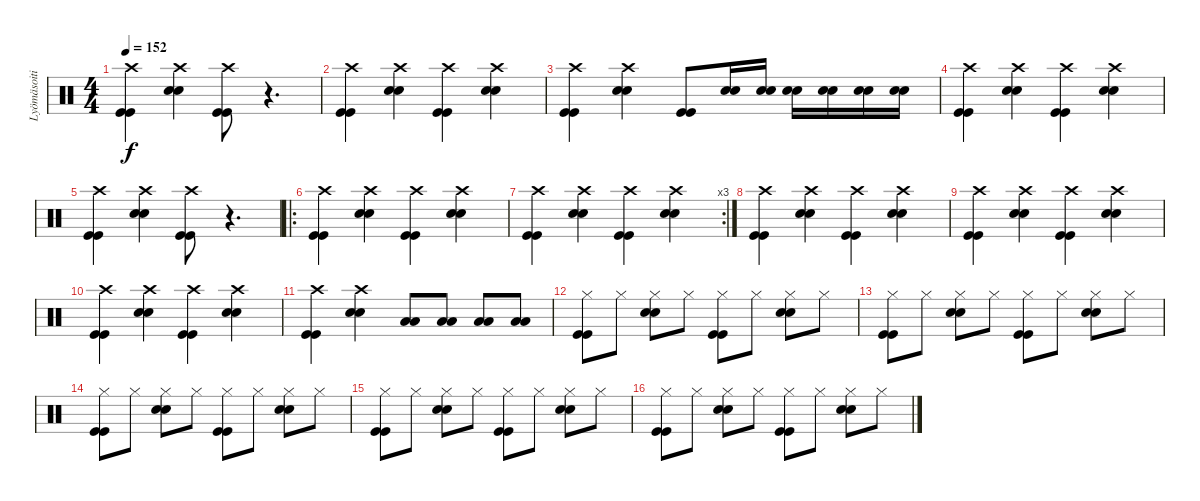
\track ("Lyömäsoitin" "Lyömäsoiti") {instrument percussion}
\staff {score}
\articulation defaults
\ts (4 4)
\tempo 152
\clef neutral
\ks c
("Crash high (hit)" "Kick (hit)" "Kick (hit)").4{dy f} ("Crash high (hit)" "Snare (hit) 2" "Snare (hit) 2").4 ("Crash high (hit)" "Kick (hit)" "Kick (hit)").8 r.4{d} |
("Crash high (hit)" "Kick (hit)" "Kick (hit)").4 ("Crash high (hit)" "Snare (hit) 2" "Snare (hit) 2").4 ("Crash high (hit)" "Kick (hit)" "Kick (hit)").4 ("Crash high (hit)" "Snare (hit) 2" "Snare (hit) 2").4 |
("Crash high (hit)" "Kick (hit)" "Kick (hit)").4 ("Crash high (hit)" "Snare (hit) 2" "Snare (hit) 2").4 ("Kick (hit)" "Kick (hit)").8 ("Snare (hit) 2" "Snare (hit) 2").16 ("Snare (hit) 2" "Snare (hit) 2").16 ("Snare (hit) 2" "Snare (hit) 2").16 ("Snare (hit) 2" "Snare (hit) 2").16 ("Snare (hit) 2" "Snare (hit) 2").16 ("Snare (hit) 2" "Snare (hit) 2").16 |
("Crash high (hit)" "Kick (hit)" "Kick (hit)").4 ("Crash high (hit)" "Snare (hit) 2" "Snare (hit) 2").4 ("Crash high (hit)" "Kick (hit)" "Kick (hit)").4 ("Crash high (hit)" "Snare (hit) 2" "Snare (hit) 2").4 |
("Crash high (hit)" "Kick (hit)" "Kick (hit)").4 ("Crash high (hit)" "Snare (hit) 2" "Snare (hit) 2").4 ("Crash high (hit)" "Kick (hit)" "Kick (hit)").8 r.4{d} |
\ro
("Crash high (hit)" "Kick (hit)" "Kick (hit)").4 ("Crash high (hit)" "Snare (hit) 2" "Snare (hit) 2").4 ("Crash high (hit)" "Kick (hit)" "Kick (hit)").4 ("Crash high (hit)" "Snare (hit) 2" "Snare (hit) 2").4 |
\rc 3
("Crash high (hit)" "Kick (hit)" "Kick (hit)").4 ("Crash high (hit)" "Snare (hit) 2" "Snare (hit) 2").4 ("Crash high (hit)" "Kick (hit)" "Kick (hit)").4 ("Crash high (hit)" "Snare (hit) 2" "Snare (hit) 2").4 |
("Crash high (hit)" "Kick (hit)" "Kick (hit)").4 ("Crash high (hit)" "Snare (hit) 2" "Snare (hit) 2").4 ("Crash high (hit)" "Kick (hit)" "Kick (hit)").4 ("Crash high (hit)" "Snare (hit) 2" "Snare (hit) 2").4 |
("Crash high (hit)" "Kick (hit)" "Kick (hit)").4 ("Crash high (hit)" "Snare (hit) 2" "Snare (hit) 2").4 ("Crash high (hit)" "Kick (hit)" "Kick (hit)").4 ("Crash high (hit)" "Snare (hit) 2" "Snare (hit) 2").4 |
("Crash high (hit)" "Kick (hit)" "Kick (hit)").4 ("Crash high (hit)" "Snare (hit) 2" "Snare (hit) 2").4 ("Crash high (hit)" "Kick (hit)" "Kick (hit)").4 ("Crash high (hit)" "Snare (hit) 2" "Snare (hit) 2").4 |
("Crash high (hit)" "Kick (hit)" "Kick (hit)").4 ("Crash high (hit)" "Snare (hit) 2" "Snare (hit) 2").4 ("Low Floor Tom (hit)" "Low Tom (hit)").8 ("Low Floor Tom (hit)" "Low Tom (hit)").8 ("Low Floor Tom (hit)" "Low Tom (hit)").8 ("Low Floor Tom (hit)" "Low Tom (hit)").8 |
("Hi-Hat (closed)" "Kick (hit)" "Kick (hit)").8 "Hi-Hat (closed)".8 ("Hi-Hat (closed)" "Snare (hit) 2" "Snare (hit) 2").8 "Hi-Hat (closed)".8 ("Hi-Hat (closed)" "Kick (hit)" "Kick (hit)").8 "Hi-Hat (closed)".8 ("Hi-Hat (closed)" "Snare (hit) 2" "Snare (hit) 2").8 "Hi-Hat (closed)".8 |
("Hi-Hat (closed)" "Kick (hit)" "Kick (hit)").8 "Hi-Hat (closed)".8 ("Hi-Hat (closed)" "Snare (hit) 2" "Snare (hit) 2").8 "Hi-Hat (closed)".8 ("Hi-Hat (closed)" "Kick (hit)" "Kick (hit)").8 "Hi-Hat (closed)".8 ("Hi-Hat (closed)" "Snare (hit) 2" "Snare (hit) 2").8 "Hi-Hat (closed)".8 |
("Hi-Hat (closed)" "Kick (hit)" "Kick (hit)").8 "Hi-Hat (closed)".8 ("Hi-Hat (closed)" "Snare (hit) 2" "Snare (hit) 2").8 "Hi-Hat (closed)".8 ("Hi-Hat (closed)" "Kick (hit)" "Kick (hit)").8 "Hi-Hat (closed)".8 ("Hi-Hat (closed)" "Snare (hit) 2" "Snare (hit) 2").8 "Hi-Hat (closed)".8 |
("Hi-Hat (closed)" "Kick (hit)" "Kick (hit)").8 "Hi-Hat (closed)".8 ("Hi-Hat (closed)" "Snare (hit)" "Snare (hit) 2").8 "Hi-Hat (closed)".8 ("Hi-Hat (closed)" "Kick (hit)" "Kick (hit)").8 "Hi-Hat (closed)".8 ("Hi-Hat (closed)" "Snare (hit) 2" "Snare (hit) 2").8 "Hi-Hat (closed)".8 |
("Hi-Hat (closed)" "Kick (hit)" "Kick (hit)").8 "Hi-Hat (closed)".8 ("Hi-Hat (closed)" "Snare (hit) 2" "Snare (hit) 2").8 "Hi-Hat (closed)".8 ("Hi-Hat (closed)" "Kick (hit)" "Kick (hit)").8 "Hi-Hat (closed)".8 ("Hi-Hat (closed)" "Snare (hit) 2" "Snare (hit) 2").8 "Hi-Hat (closed)".8
